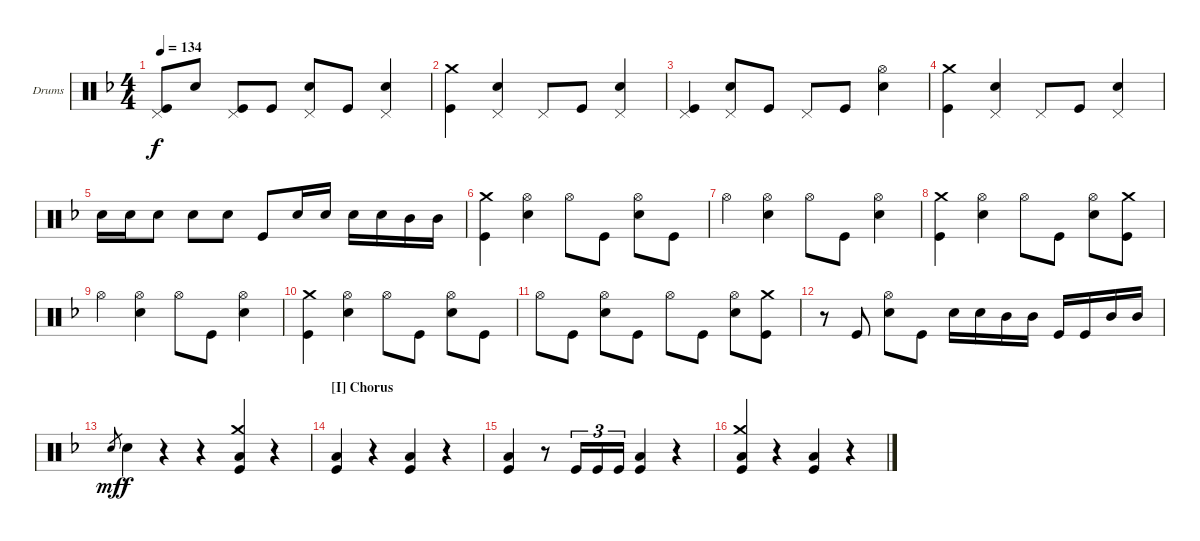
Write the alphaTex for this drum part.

\defaultSystemsLayout 4
\bracketExtendMode groupsimilarinstruments
\firstSystemTrackNameOrientation horizontal
\otherSystemsTrackNameOrientation horizontal
\track ("Carmine" "Drums") {instrument percussion}
\staff {score}
\articulation defaults
\ts (4 4)
\tempo 134
\clef neutral
\ks f
("Pedal Hi-Hat (hit)" "Kick (hit)").8{dy f} "Snare (hit) 2".8 ("Pedal Hi-Hat (hit)" "Kick (hit)").8 "Kick (hit)".8 ("Pedal Hi-Hat (hit)" "Snare (hit) 2").8 "Kick (hit)".8 ("Pedal Hi-Hat (hit)" "Snare (hit) 2").4 |
("Crash medium (hit)" "Kick (hit)").4 ("Pedal Hi-Hat (hit)" "Snare (hit) 2").4 "Pedal Hi-Hat (hit)".8 "Kick (hit)".8 ("Pedal Hi-Hat (hit)" "Snare (hit) 2").4 |
("Pedal Hi-Hat (hit)" "Kick (hit)").4 ("Pedal Hi-Hat (hit)" "Snare (hit) 2").8 "Kick (hit)".8 "Pedal Hi-Hat (hit)".8 "Kick (hit)".8 ("Hi-Hat (open)" "Snare (hit) 2").4 |
("Crash medium (hit)" "Kick (hit)").4 ("Pedal Hi-Hat (hit)" "Snare (hit) 2").4 "Pedal Hi-Hat (hit)".8 "Kick (hit)".8 ("Pedal Hi-Hat (hit)" "Snare (hit) 2").4 |
"Snare (hit) 2".16 "Snare (hit) 2".16 "Snare (hit) 2".8 "Snare (hit) 2".8 "Snare (hit) 2".8 "Kick (hit)".8 "Snare (hit) 2".16 "Snare (hit) 2".16 "Snare (hit) 2".16 "Snare (hit) 2".16 "Mid Tom (hit)".16 "Mid Tom (hit)".16 |
("Crash medium (hit)" "Kick (hit)").4 ("Hi-Hat (open)" "Snare (hit) 2").4 "Hi-Hat (open)".8 "Kick (hit)".8 ("Hi-Hat (open)" "Snare (hit) 2").8 "Kick (hit)".8 |
"Hi-Hat (open)".4 ("Hi-Hat (open)" "Snare (hit) 2").4 "Hi-Hat (open)".8 "Kick (hit)".8 ("Hi-Hat (open)" "Snare (hit) 2").4 |
("Crash medium (hit)" "Kick (hit)").4 ("Hi-Hat (open)" "Snare (hit) 2").4 "Hi-Hat (open)".8 "Kick (hit)".8 ("Hi-Hat (open)" "Snare (hit) 2").8 ("Crash medium (hit)" "Kick (hit)").8 |
"Hi-Hat (open)".4 ("Hi-Hat (open)" "Snare (hit) 2").4 "Hi-Hat (open)".8 "Kick (hit)".8 ("Hi-Hat (open)" "Snare (hit) 2").4 |
("Crash medium (hit)" "Kick (hit)").4 ("Hi-Hat (open)" "Snare (hit) 2").4 "Hi-Hat (open)".8 "Kick (hit)".8 ("Hi-Hat (open)" "Snare (hit) 2").8 "Kick (hit)".8 |
"Hi-Hat (open)".8 "Kick (hit)".8 ("Hi-Hat (open)" "Snare (hit) 2").8 "Kick (hit)".8 "Hi-Hat (open)".8 "Kick (hit)".8 ("Hi-Hat (open)" "Snare (hit) 2").8 ("Crash medium (hit)" "Kick (hit)").8 |
r.8 "Kick (hit)".8 ("Hi-Hat (open)" "Snare (hit) 2").8 "Kick (hit)".8 "Snare (hit) 2".16 "Snare (hit) 2".16 "Mid Tom (hit)".16 "Mid Tom (hit)".16 "Kick (hit)".16 "Kick (hit)".16 "Mid Tom (hit)".16 "Mid Tom (hit)".16 |
"Snare (hit) 2".8{gr dy mf} "Snare (hit) 2".4{dy f} r.4 r.4 ("Crash medium (hit)" "Low Tom (hit)" "Kick (hit)").4 r.4 |
\section ("I" "Chorus")
("Low Tom (hit)" "Kick (hit)").4 r.4 ("Low Tom (hit)" "Kick (hit)").4 r.4 |
("Low Tom (hit)" "Kick (hit)").4 r.8 "Kick (hit)".16{tu (3 2)} "Kick (hit)".16{tu (3 2)} "Kick (hit)".16{tu (3 2)} ("Low Tom (hit)" "Kick (hit)").4 r.4 |
("Crash medium (hit)" "Low Tom (hit)" "Kick (hit)").4 r.4 ("Low Tom (hit)" "Kick (hit)").4 r.4
